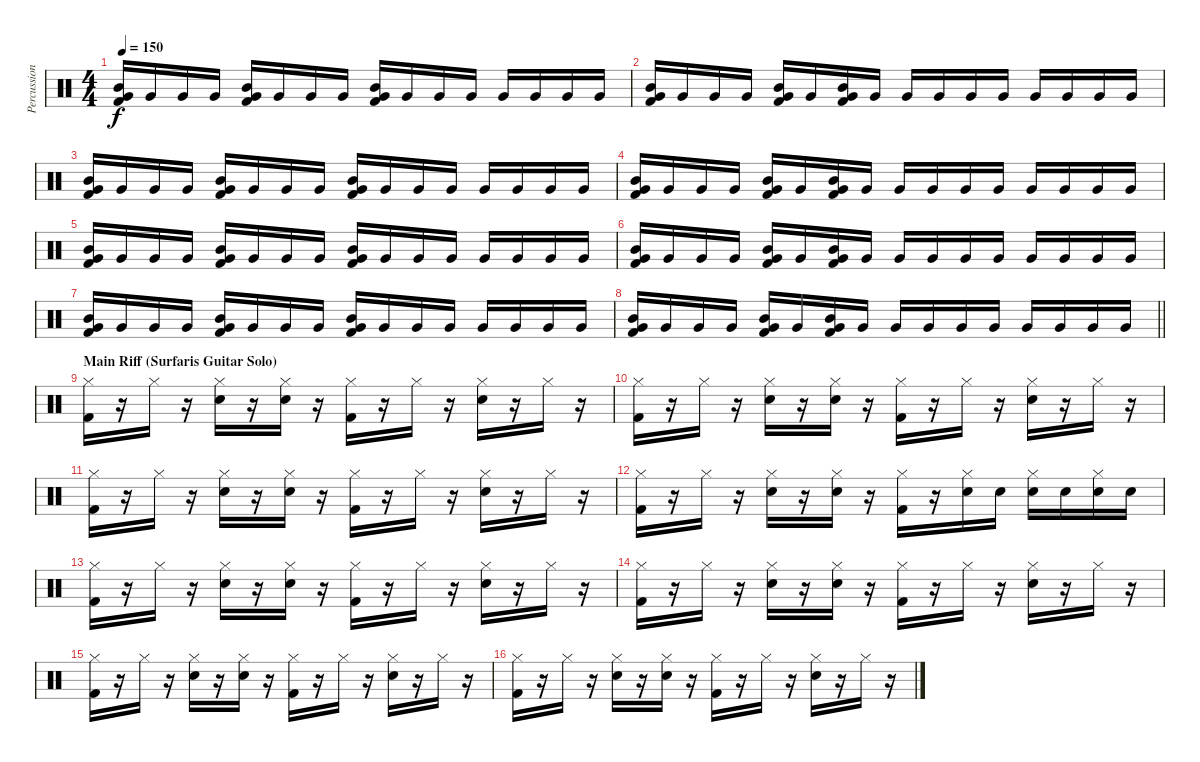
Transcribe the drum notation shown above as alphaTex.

\track ("Percussion" "Percussion") {instrument percussion}
\staff {score}
\articulation defaults
\ts (4 4)
\tempo 150
\clef neutral
\ks c
("Mid Tom (hit)" "Very Low Tom (hit)" "Kick (hit) 2").16{dy f} "Very Low Tom (hit)".16 "Very Low Tom (hit)".16 "Very Low Tom (hit)".16 ("Mid Tom (hit)" "Very Low Tom (hit)" "Kick (hit) 2").16 "Very Low Tom (hit)".16 "Very Low Tom (hit)".16 "Very Low Tom (hit)".16 ("Mid Tom (hit)" "Very Low Tom (hit)" "Kick (hit) 2").16 "Very Low Tom (hit)".16 "Very Low Tom (hit)".16 "Very Low Tom (hit)".16 "Very Low Tom (hit)".16 "Very Low Tom (hit)".16 "Very Low Tom (hit)".16 "Very Low Tom (hit)".16 |
("Mid Tom (hit)" "Very Low Tom (hit)" "Kick (hit) 2").16 "Very Low Tom (hit)".16 "Very Low Tom (hit)".16 "Very Low Tom (hit)".16 ("Mid Tom (hit)" "Very Low Tom (hit)" "Kick (hit) 2").16 "Very Low Tom (hit)".16 ("Mid Tom (hit)" "Very Low Tom (hit)" "Kick (hit) 2").16 "Very Low Tom (hit)".16 "Very Low Tom (hit)".16 "Very Low Tom (hit)".16 "Very Low Tom (hit)".16 "Very Low Tom (hit)".16 "Very Low Tom (hit)".16 "Very Low Tom (hit)".16 "Very Low Tom (hit)".16 "Very Low Tom (hit)".16 |
("Mid Tom (hit)" "Very Low Tom (hit)" "Kick (hit) 2").16 "Very Low Tom (hit)".16 "Very Low Tom (hit)".16 "Very Low Tom (hit)".16 ("Mid Tom (hit)" "Very Low Tom (hit)" "Kick (hit) 2").16 "Very Low Tom (hit)".16 "Very Low Tom (hit)".16 "Very Low Tom (hit)".16 ("Mid Tom (hit)" "Very Low Tom (hit)" "Kick (hit) 2").16 "Very Low Tom (hit)".16 "Very Low Tom (hit)".16 "Very Low Tom (hit)".16 "Very Low Tom (hit)".16 "Very Low Tom (hit)".16 "Very Low Tom (hit)".16 "Very Low Tom (hit)".16 |
("Mid Tom (hit)" "Very Low Tom (hit)" "Kick (hit) 2").16 "Very Low Tom (hit)".16 "Very Low Tom (hit)".16 "Very Low Tom (hit)".16 ("Mid Tom (hit)" "Very Low Tom (hit)" "Kick (hit) 2").16 "Very Low Tom (hit)".16 ("Mid Tom (hit)" "Very Low Tom (hit)" "Kick (hit) 2").16 "Very Low Tom (hit)".16 "Very Low Tom (hit)".16 "Very Low Tom (hit)".16 "Very Low Tom (hit)".16 "Very Low Tom (hit)".16 "Very Low Tom (hit)".16 "Very Low Tom (hit)".16 "Very Low Tom (hit)".16 "Very Low Tom (hit)".16 |
("Mid Tom (hit)" "Very Low Tom (hit)" "Kick (hit) 2").16 "Very Low Tom (hit)".16 "Very Low Tom (hit)".16 "Very Low Tom (hit)".16 ("Mid Tom (hit)" "Very Low Tom (hit)" "Kick (hit) 2").16 "Very Low Tom (hit)".16 "Very Low Tom (hit)".16 "Very Low Tom (hit)".16 ("Mid Tom (hit)" "Very Low Tom (hit)" "Kick (hit) 2").16 "Very Low Tom (hit)".16 "Very Low Tom (hit)".16 "Very Low Tom (hit)".16 "Very Low Tom (hit)".16 "Very Low Tom (hit)".16 "Very Low Tom (hit)".16 "Very Low Tom (hit)".16 |
("Mid Tom (hit)" "Very Low Tom (hit)" "Kick (hit) 2").16 "Very Low Tom (hit)".16 "Very Low Tom (hit)".16 "Very Low Tom (hit)".16 ("Mid Tom (hit)" "Very Low Tom (hit)" "Kick (hit) 2").16 "Very Low Tom (hit)".16 ("Mid Tom (hit)" "Very Low Tom (hit)" "Kick (hit) 2").16 "Very Low Tom (hit)".16 "Very Low Tom (hit)".16 "Very Low Tom (hit)".16 "Very Low Tom (hit)".16 "Very Low Tom (hit)".16 "Very Low Tom (hit)".16 "Very Low Tom (hit)".16 "Very Low Tom (hit)".16 "Very Low Tom (hit)".16 |
("Mid Tom (hit)" "Very Low Tom (hit)" "Kick (hit) 2").16 "Very Low Tom (hit)".16 "Very Low Tom (hit)".16 "Very Low Tom (hit)".16 ("Mid Tom (hit)" "Very Low Tom (hit)" "Kick (hit) 2").16 "Very Low Tom (hit)".16 "Very Low Tom (hit)".16 "Very Low Tom (hit)".16 ("Mid Tom (hit)" "Very Low Tom (hit)" "Kick (hit) 2").16 "Very Low Tom (hit)".16 "Very Low Tom (hit)".16 "Very Low Tom (hit)".16 "Very Low Tom (hit)".16 "Very Low Tom (hit)".16 "Very Low Tom (hit)".16 "Very Low Tom (hit)".16 |
\barLineRight lightlight
("Mid Tom (hit)" "Very Low Tom (hit)" "Kick (hit) 2").16 "Very Low Tom (hit)".16 "Very Low Tom (hit)".16 "Very Low Tom (hit)".16 ("Mid Tom (hit)" "Very Low Tom (hit)" "Kick (hit) 2").16 "Very Low Tom (hit)".16 ("Mid Tom (hit)" "Very Low Tom (hit)" "Kick (hit) 2").16 "Very Low Tom (hit)".16 "Very Low Tom (hit)".16 "Very Low Tom (hit)".16 "Very Low Tom (hit)".16 "Very Low Tom (hit)".16 "Very Low Tom (hit)".16 "Very Low Tom (hit)".16 "Very Low Tom (hit)".16 "Very Low Tom (hit)".16 |
\section ("" "Main Riff (Surfaris Guitar Solo)")
("Hi-Hat (closed)" "Kick (hit) 2").16 r.16 "Hi-Hat (closed)".16 r.16 ("Hi-Hat (closed)" "Snare (hit) 2").16 r.16 ("Hi-Hat (closed)" "Snare (hit) 2").16 r.16 ("Hi-Hat (closed)" "Kick (hit) 2").16 r.16 "Hi-Hat (closed)".16 r.16 ("Hi-Hat (closed)" "Snare (hit) 2").16 r.16 "Hi-Hat (closed)".16 r.16 |
("Hi-Hat (closed)" "Kick (hit) 2").16 r.16 "Hi-Hat (closed)".16 r.16 ("Hi-Hat (closed)" "Snare (hit) 2").16 r.16 ("Hi-Hat (closed)" "Snare (hit) 2").16 r.16 ("Hi-Hat (closed)" "Kick (hit) 2").16 r.16 "Hi-Hat (closed)".16 r.16 ("Hi-Hat (closed)" "Snare (hit) 2").16 r.16 "Hi-Hat (closed)".16 r.16 |
("Hi-Hat (closed)" "Kick (hit) 2").16 r.16 "Hi-Hat (closed)".16 r.16 ("Hi-Hat (closed)" "Snare (hit) 2").16 r.16 ("Hi-Hat (closed)" "Snare (hit) 2").16 r.16 ("Hi-Hat (closed)" "Kick (hit) 2").16 r.16 "Hi-Hat (closed)".16 r.16 ("Hi-Hat (closed)" "Snare (hit) 2").16 r.16 "Hi-Hat (closed)".16 r.16 |
("Hi-Hat (closed)" "Kick (hit) 2").16 r.16 "Hi-Hat (closed)".16 r.16 ("Hi-Hat (closed)" "Snare (hit) 2").16 r.16 ("Hi-Hat (closed)" "Snare (hit) 2").16 r.16 ("Hi-Hat (closed)" "Kick (hit) 2").16 r.16 ("Hi-Hat (closed)" "Snare (hit) 2").16 "Snare (hit) 2".16 ("Hi-Hat (closed)" "Snare (hit) 2").16 "Snare (hit) 2".16 ("Hi-Hat (closed)" "Snare (hit) 2").16 "Snare (hit) 2".16 |
("Hi-Hat (closed)" "Kick (hit) 2").16 r.16 "Hi-Hat (closed)".16 r.16 ("Hi-Hat (closed)" "Snare (hit) 2").16 r.16 ("Hi-Hat (closed)" "Snare (hit) 2").16 r.16 ("Hi-Hat (closed)" "Kick (hit) 2").16 r.16 "Hi-Hat (closed)".16 r.16 ("Hi-Hat (closed)" "Snare (hit) 2").16 r.16 "Hi-Hat (closed)".16 r.16 |
("Hi-Hat (closed)" "Kick (hit) 2").16 r.16 "Hi-Hat (closed)".16 r.16 ("Hi-Hat (closed)" "Snare (hit) 2").16 r.16 ("Hi-Hat (closed)" "Snare (hit) 2").16 r.16 ("Hi-Hat (closed)" "Kick (hit) 2").16 r.16 "Hi-Hat (closed)".16 r.16 ("Hi-Hat (closed)" "Snare (hit) 2").16 r.16 "Hi-Hat (closed)".16 r.16 |
("Hi-Hat (closed)" "Kick (hit) 2").16 r.16 "Hi-Hat (closed)".16 r.16 ("Hi-Hat (closed)" "Snare (hit) 2").16 r.16 ("Hi-Hat (closed)" "Snare (hit) 2").16 r.16 ("Hi-Hat (closed)" "Kick (hit) 2").16 r.16 "Hi-Hat (closed)".16 r.16 ("Hi-Hat (closed)" "Snare (hit) 2").16 r.16 "Hi-Hat (closed)".16 r.16 |
("Hi-Hat (closed)" "Kick (hit) 2").16 r.16 "Hi-Hat (closed)".16 r.16 ("Hi-Hat (closed)" "Snare (hit) 2").16 r.16 ("Hi-Hat (closed)" "Snare (hit) 2").16 r.16 ("Hi-Hat (closed)" "Kick (hit) 2").16 r.16 "Hi-Hat (closed)".16 r.16 ("Hi-Hat (closed)" "Snare (hit) 2").16 r.16 "Hi-Hat (closed)".16 r.16
